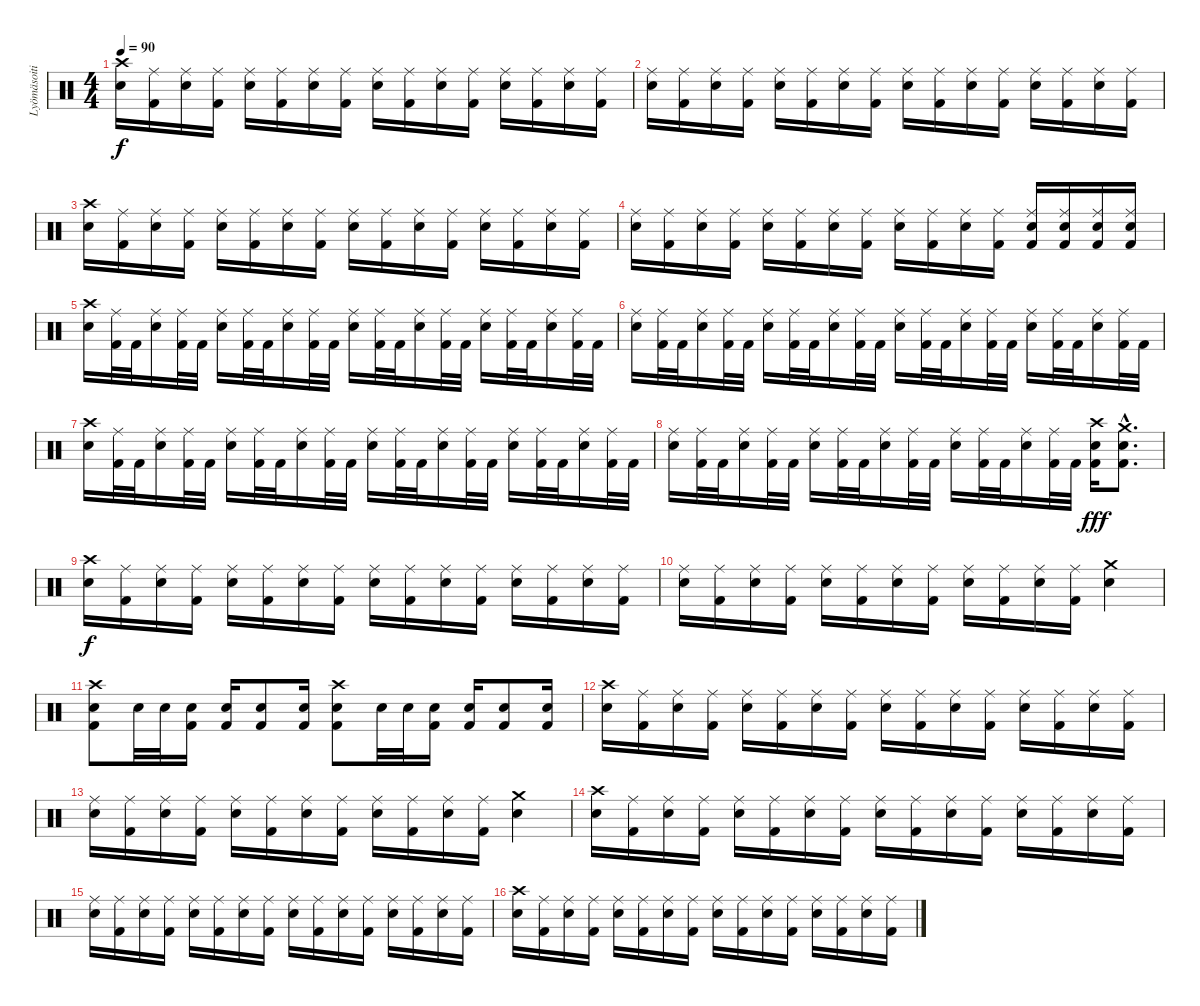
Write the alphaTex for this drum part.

\track ("Lyömäsoitin" "Lyömäsoiti") {instrument percussion}
\staff {score}
\articulation defaults
\ts (4 4)
\tempo 90
\clef neutral
\ks c
("Crash high (hit)" "Snare (hit) 2").16{dy f} ("Ride (middle)" "Kick (hit) 2").16 ("Ride (middle)" "Snare (hit) 2").16 ("Ride (middle)" "Kick (hit) 2").16 ("Ride (middle)" "Snare (hit) 2").16 ("Ride (middle)" "Kick (hit) 2").16 ("Ride (middle)" "Snare (hit) 2").16 ("Ride (middle)" "Kick (hit) 2").16 ("Ride (middle)" "Snare (hit) 2").16 ("Ride (middle)" "Kick (hit) 2").16 ("Ride (middle)" "Snare (hit) 2").16 ("Ride (middle)" "Kick (hit) 2").16 ("Ride (middle)" "Snare (hit) 2").16 ("Ride (middle)" "Kick (hit) 2").16 ("Ride (middle)" "Snare (hit) 2").16 ("Ride (middle)" "Kick (hit) 2").16 |
("Ride (middle)" "Snare (hit) 2").16 ("Ride (middle)" "Kick (hit) 2").16 ("Ride (middle)" "Snare (hit) 2").16 ("Ride (middle)" "Kick (hit) 2").16 ("Ride (middle)" "Snare (hit) 2").16 ("Ride (middle)" "Kick (hit) 2").16 ("Ride (middle)" "Snare (hit) 2").16 ("Ride (middle)" "Kick (hit) 2").16 ("Ride (middle)" "Snare (hit) 2").16 ("Ride (middle)" "Kick (hit) 2").16 ("Ride (middle)" "Snare (hit) 2").16 ("Ride (middle)" "Kick (hit) 2").16 ("Ride (middle)" "Snare (hit) 2").16 ("Ride (middle)" "Kick (hit) 2").16 ("Ride (middle)" "Snare (hit) 2").16 ("Ride (middle)" "Kick (hit) 2").16 |
("Crash high (hit)" "Snare (hit) 2").16 ("Ride (middle)" "Kick (hit) 2").16 ("Ride (middle)" "Snare (hit) 2").16 ("Ride (middle)" "Kick (hit) 2").16 ("Ride (middle)" "Snare (hit) 2").16 ("Ride (middle)" "Kick (hit) 2").16 ("Ride (middle)" "Snare (hit) 2").16 ("Ride (middle)" "Kick (hit) 2").16 ("Ride (middle)" "Snare (hit) 2").16 ("Ride (middle)" "Kick (hit) 2").16 ("Ride (middle)" "Snare (hit) 2").16 ("Ride (middle)" "Kick (hit) 2").16 ("Ride (middle)" "Snare (hit) 2").16 ("Ride (middle)" "Kick (hit) 2").16 ("Ride (middle)" "Snare (hit) 2").16 ("Ride (middle)" "Kick (hit) 2").16 |
("Ride (middle)" "Snare (hit) 2").16 ("Ride (middle)" "Kick (hit) 2").16 ("Ride (middle)" "Snare (hit) 2").16 ("Ride (middle)" "Kick (hit) 2").16 ("Ride (middle)" "Snare (hit) 2").16 ("Ride (middle)" "Kick (hit) 2").16 ("Ride (middle)" "Snare (hit) 2").16 ("Ride (middle)" "Kick (hit) 2").16 ("Ride (middle)" "Snare (hit) 2").16 ("Ride (middle)" "Kick (hit) 2").16 ("Ride (middle)" "Snare (hit) 2").16 ("Ride (middle)" "Kick (hit) 2").16 ("Ride (middle)" "Snare (hit) 2" "Kick (hit) 2").16 ("Ride (middle)" "Snare (hit) 2" "Kick (hit) 2").16 ("Ride (middle)" "Snare (hit) 2" "Kick (hit) 2").16 ("Ride (middle)" "Snare (hit) 2" "Kick (hit) 2").16 |
("Crash high (hit)" "Snare (hit) 2").16 ("Ride (middle)" "Kick (hit) 2").32 "Kick (hit) 2".32 ("Ride (middle)" "Snare (hit) 2").16 ("Ride (middle)" "Kick (hit) 2").32 "Kick (hit) 2".32 ("Ride (middle)" "Snare (hit) 2").16 ("Ride (middle)" "Kick (hit) 2").32 "Kick (hit) 2".32 ("Ride (middle)" "Snare (hit) 2").16 ("Ride (middle)" "Kick (hit) 2").32 "Kick (hit) 2".32 ("Ride (middle)" "Snare (hit) 2").16 ("Ride (middle)" "Kick (hit) 2").32 "Kick (hit) 2".32 ("Ride (middle)" "Snare (hit) 2").16 ("Ride (middle)" "Kick (hit) 2").32 "Kick (hit) 2".32 ("Ride (middle)" "Snare (hit) 2").16 ("Ride (middle)" "Kick (hit) 2").32 "Kick (hit) 2".32 ("Ride (middle)" "Snare (hit) 2").16 ("Ride (middle)" "Kick (hit) 2").32 "Kick (hit) 2".32 |
("Ride (middle)" "Snare (hit) 2").16 ("Ride (middle)" "Kick (hit) 2").32 "Kick (hit) 2".32 ("Ride (middle)" "Snare (hit) 2").16 ("Ride (middle)" "Kick (hit) 2").32 "Kick (hit) 2".32 ("Ride (middle)" "Snare (hit) 2").16 ("Ride (middle)" "Kick (hit) 2").32 "Kick (hit) 2".32 ("Ride (middle)" "Snare (hit) 2").16 ("Ride (middle)" "Kick (hit) 2").32 "Kick (hit) 2".32 ("Ride (middle)" "Snare (hit) 2").16 ("Ride (middle)" "Kick (hit) 2").32 "Kick (hit) 2".32 ("Ride (middle)" "Snare (hit) 2").16 ("Ride (middle)" "Kick (hit) 2").32 "Kick (hit) 2".32 ("Ride (middle)" "Snare (hit) 2").16 ("Ride (middle)" "Kick (hit) 2").32 "Kick (hit) 2".32 ("Ride (middle)" "Snare (hit) 2").16 ("Ride (middle)" "Kick (hit) 2").32 "Kick (hit) 2".32 |
("Crash high (hit)" "Snare (hit) 2").16 ("Ride (middle)" "Kick (hit) 2").32 "Kick (hit) 2".32 ("Ride (middle)" "Snare (hit) 2").16 ("Ride (middle)" "Kick (hit) 2").32 "Kick (hit) 2".32 ("Ride (middle)" "Snare (hit) 2").16 ("Ride (middle)" "Kick (hit) 2").32 "Kick (hit) 2".32 ("Ride (middle)" "Snare (hit) 2").16 ("Ride (middle)" "Kick (hit) 2").32 "Kick (hit) 2".32 ("Ride (middle)" "Snare (hit) 2").16 ("Ride (middle)" "Kick (hit) 2").32 "Kick (hit) 2".32 ("Ride (middle)" "Snare (hit) 2").16 ("Ride (middle)" "Kick (hit) 2").32 "Kick (hit) 2".32 ("Ride (middle)" "Snare (hit) 2").16 ("Ride (middle)" "Kick (hit) 2").32 "Kick (hit) 2".32 ("Ride (middle)" "Snare (hit) 2").16 ("Ride (middle)" "Kick (hit) 2").32 "Kick (hit) 2".32 |
("Ride (middle)" "Snare (hit) 2").16 ("Ride (middle)" "Kick (hit) 2").32 "Kick (hit) 2".32 ("Ride (middle)" "Snare (hit) 2").16 ("Ride (middle)" "Kick (hit) 2").32 "Kick (hit) 2".32 ("Ride (middle)" "Snare (hit) 2").16 ("Ride (middle)" "Kick (hit) 2").32 "Kick (hit) 2".32 ("Ride (middle)" "Snare (hit) 2").16 ("Ride (middle)" "Kick (hit) 2").32 "Kick (hit) 2".32 ("Ride (middle)" "Snare (hit) 2").16 ("Ride (middle)" "Kick (hit) 2").32 "Kick (hit) 2".32 ("Ride (middle)" "Snare (hit) 2").16 ("Ride (middle)" "Kick (hit) 2").32 "Kick (hit) 2".32 ("Crash high (hit)" "Snare (hit) 2" "Kick (hit) 2").16{dy fff} ("Crash medium (hit)"{hac} "Snare (hit) 2"{hac} "Kick (hit) 2"{hac}).8{d} |
("Crash high (hit)" "Snare (hit) 2").16{dy f} ("Ride (middle)" "Kick (hit) 2").16 ("Ride (middle)" "Snare (hit) 2").16 ("Ride (middle)" "Kick (hit) 2").16 ("Ride (middle)" "Snare (hit) 2").16 ("Ride (middle)" "Kick (hit) 2").16 ("Ride (middle)" "Snare (hit) 2").16 ("Ride (middle)" "Kick (hit) 2").16 ("Ride (middle)" "Snare (hit) 2").16 ("Ride (middle)" "Kick (hit) 2").16 ("Ride (middle)" "Snare (hit) 2").16 ("Ride (middle)" "Kick (hit) 2").16 ("Ride (middle)" "Snare (hit) 2").16 ("Ride (middle)" "Kick (hit) 2").16 ("Ride (middle)" "Snare (hit) 2").16 ("Ride (middle)" "Kick (hit) 2").16 |
("Ride (middle)" "Snare (hit) 2").16 ("Ride (middle)" "Kick (hit) 2").16 ("Ride (middle)" "Snare (hit) 2").16 ("Ride (middle)" "Kick (hit) 2").16 ("Ride (middle)" "Snare (hit) 2").16 ("Ride (middle)" "Kick (hit) 2").16 ("Ride (middle)" "Snare (hit) 2").16 ("Ride (middle)" "Kick (hit) 2").16 ("Ride (middle)" "Snare (hit) 2").16 ("Ride (middle)" "Kick (hit) 2").16 ("Ride (middle)" "Snare (hit) 2").16 ("Ride (middle)" "Kick (hit) 2").16 ("Crash medium (hit)" "Snare (hit) 2").4 |
("Crash high (hit)" "Snare (hit) 2" "Kick (hit) 2").8 "Snare (hit) 2".32 "Snare (hit) 2".32 ("Snare (hit) 2" "Kick (hit) 2").16 ("Snare (hit) 2" "Kick (hit) 2").16 ("Snare (hit) 2" "Kick (hit) 2").8 ("Snare (hit) 2" "Kick (hit) 2").16 ("Crash high (hit)" "Snare (hit) 2" "Kick (hit) 2").8 "Snare (hit) 2".32 "Snare (hit) 2".32 ("Snare (hit) 2" "Kick (hit) 2").16 ("Snare (hit) 2" "Kick (hit) 2").16 ("Snare (hit) 2" "Kick (hit) 2").8 ("Snare (hit) 2" "Kick (hit) 2").16 |
("Crash high (hit)" "Snare (hit) 2").16 ("Ride (middle)" "Kick (hit) 2").16 ("Ride (middle)" "Snare (hit) 2").16 ("Ride (middle)" "Kick (hit) 2").16 ("Ride (middle)" "Snare (hit) 2").16 ("Ride (middle)" "Kick (hit) 2").16 ("Ride (middle)" "Snare (hit) 2").16 ("Ride (middle)" "Kick (hit) 2").16 ("Ride (middle)" "Snare (hit) 2").16 ("Ride (middle)" "Kick (hit) 2").16 ("Ride (middle)" "Snare (hit) 2").16 ("Ride (middle)" "Kick (hit) 2").16 ("Ride (middle)" "Snare (hit) 2").16 ("Ride (middle)" "Kick (hit) 2").16 ("Ride (middle)" "Snare (hit) 2").16 ("Ride (middle)" "Kick (hit) 2").16 |
("Ride (middle)" "Snare (hit) 2").16 ("Ride (middle)" "Kick (hit) 2").16 ("Ride (middle)" "Snare (hit) 2").16 ("Ride (middle)" "Kick (hit) 2").16 ("Ride (middle)" "Snare (hit) 2").16 ("Ride (middle)" "Kick (hit) 2").16 ("Ride (middle)" "Snare (hit) 2").16 ("Ride (middle)" "Kick (hit) 2").16 ("Ride (middle)" "Snare (hit) 2").16 ("Ride (middle)" "Kick (hit) 2").16 ("Ride (middle)" "Snare (hit) 2").16 ("Ride (middle)" "Kick (hit) 2").16 ("Crash medium (hit)" "Snare (hit) 2").4 |
("Crash high (hit)" "Snare (hit) 2").16 ("Ride (middle)" "Kick (hit) 2").16 ("Ride (middle)" "Snare (hit) 2").16 ("Ride (middle)" "Kick (hit) 2").16 ("Ride (middle)" "Snare (hit) 2").16 ("Ride (middle)" "Kick (hit) 2").16 ("Ride (middle)" "Snare (hit) 2").16 ("Ride (middle)" "Kick (hit) 2").16 ("Ride (middle)" "Snare (hit) 2").16 ("Ride (middle)" "Kick (hit) 2").16 ("Ride (middle)" "Snare (hit) 2").16 ("Ride (middle)" "Kick (hit) 2").16 ("Ride (middle)" "Snare (hit) 2").16 ("Ride (middle)" "Kick (hit) 2").16 ("Ride (middle)" "Snare (hit) 2").16 ("Ride (middle)" "Kick (hit) 2").16 |
("Ride (middle)" "Snare (hit) 2").16 ("Ride (middle)" "Kick (hit) 2").16 ("Ride (middle)" "Snare (hit) 2").16 ("Ride (middle)" "Kick (hit) 2").16 ("Ride (middle)" "Snare (hit) 2").16 ("Ride (middle)" "Kick (hit) 2").16 ("Ride (middle)" "Snare (hit) 2").16 ("Ride (middle)" "Kick (hit) 2").16 ("Ride (middle)" "Snare (hit) 2").16 ("Ride (middle)" "Kick (hit) 2").16 ("Ride (middle)" "Snare (hit) 2").16 ("Ride (middle)" "Kick (hit) 2").16 ("Ride (middle)" "Snare (hit) 2").16 ("Ride (middle)" "Kick (hit) 2").16 ("Ride (middle)" "Snare (hit) 2").16 ("Ride (middle)" "Kick (hit) 2").16 |
("Crash high (hit)" "Snare (hit) 2").16 ("Ride (middle)" "Kick (hit) 2").16 ("Ride (middle)" "Snare (hit) 2").16 ("Ride (middle)" "Kick (hit) 2").16 ("Ride (middle)" "Snare (hit) 2").16 ("Ride (middle)" "Kick (hit) 2").16 ("Ride (middle)" "Snare (hit) 2").16 ("Ride (middle)" "Kick (hit) 2").16 ("Ride (middle)" "Snare (hit) 2").16 ("Ride (middle)" "Kick (hit) 2").16 ("Ride (middle)" "Snare (hit) 2").16 ("Ride (middle)" "Kick (hit) 2").16 ("Ride (middle)" "Snare (hit) 2").16 ("Ride (middle)" "Kick (hit) 2").16 ("Ride (middle)" "Snare (hit) 2").16 ("Ride (middle)" "Kick (hit) 2").16
